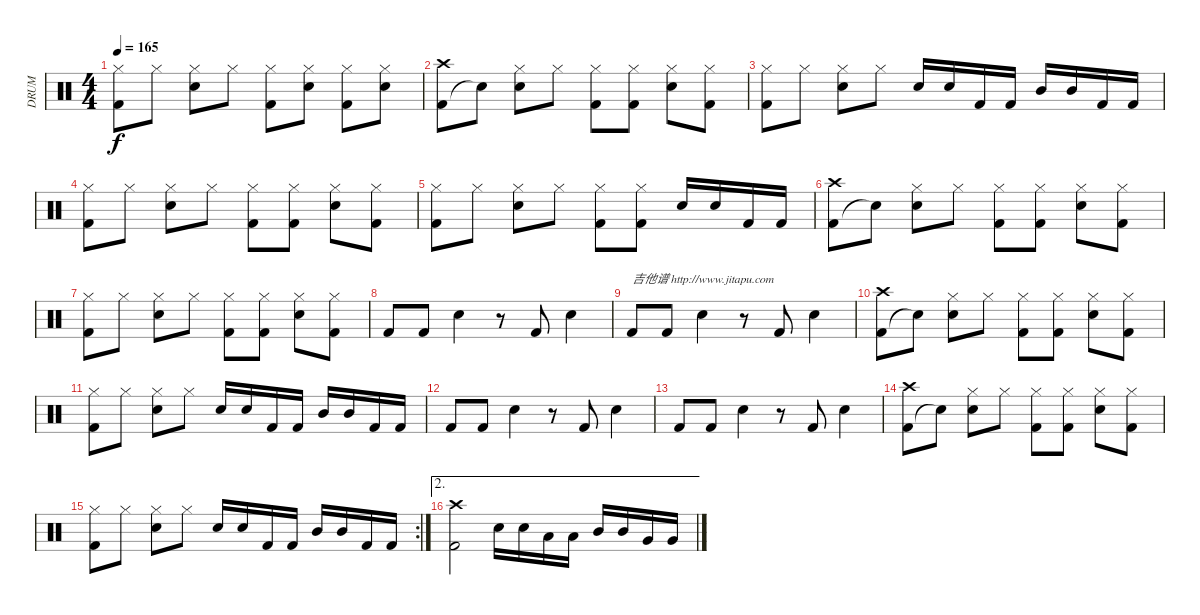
\track ("DRUM" "DRUM") {instrument percussion}
\staff {score}
\articulation defaults
\ts (4 4)
\tempo 165
\clef neutral
\ks c
("Kick (hit) 2" "Hi-Hat (closed)").8{dy f} "Hi-Hat (closed)".8 ("Electric Snare (hit)" "Hi-Hat (closed)").8 "Hi-Hat (closed)".8 ("Kick (hit) 2" "Hi-Hat (closed)").8 ("Electric Snare (hit)" "Hi-Hat (closed)").8 ("Kick (hit) 2" "Hi-Hat (closed)").8 ("Electric Snare (hit)" "Hi-Hat (closed)").8 |
("Kick (hit) 2" "Crash high (hit)").8 "Snare (hit)"{t}.8 ("Electric Snare (hit)" "Hi-Hat (closed)").8 "Hi-Hat (closed)".8 ("Kick (hit) 2" "Hi-Hat (closed)").8 ("Kick (hit) 2" "Hi-Hat (closed)").8 ("Electric Snare (hit)" "Hi-Hat (closed)").8 ("Kick (hit) 2" "Hi-Hat (closed)").8 |
("Kick (hit) 2" "Hi-Hat (closed)").8 "Hi-Hat (closed)".8 ("Electric Snare (hit)" "Hi-Hat (closed)").8 "Hi-Hat (closed)".8 "Electric Snare (hit)".16 "Electric Snare (hit)".16 "Kick (hit) 2".16 "Kick (hit) 2".16 "Mid Tom (hit)".16 "Mid Tom (hit)".16 "Kick (hit) 2".16 "Kick (hit) 2".16 |
("Kick (hit) 2" "Hi-Hat (closed)").8 "Hi-Hat (closed)".8 ("Electric Snare (hit)" "Hi-Hat (closed)").8 "Hi-Hat (closed)".8 ("Kick (hit) 2" "Hi-Hat (closed)").8 ("Kick (hit) 2" "Hi-Hat (closed)").8 ("Electric Snare (hit)" "Hi-Hat (closed)").8 ("Kick (hit) 2" "Hi-Hat (closed)").8 |
("Kick (hit) 2" "Hi-Hat (closed)").8 "Hi-Hat (closed)".8 ("Electric Snare (hit)" "Hi-Hat (closed)").8 "Hi-Hat (closed)".8 ("Kick (hit) 2" "Hi-Hat (closed)").8 ("Kick (hit) 2" "Hi-Hat (closed)").8 "Electric Snare (hit)".16 "Electric Snare (hit)".16 "Kick (hit) 2".16 "Kick (hit) 2".16 |
("Kick (hit) 2" "Crash high (hit)").8 "Snare (hit)"{t}.8 ("Electric Snare (hit)" "Hi-Hat (closed)").8 "Hi-Hat (closed)".8 ("Kick (hit) 2" "Hi-Hat (closed)").8 ("Kick (hit) 2" "Hi-Hat (closed)").8 ("Electric Snare (hit)" "Hi-Hat (closed)").8 ("Kick (hit) 2" "Hi-Hat (closed)").8 |
("Kick (hit) 2" "Hi-Hat (closed)").8 "Hi-Hat (closed)".8 ("Electric Snare (hit)" "Hi-Hat (closed)").8 "Hi-Hat (closed)".8 ("Kick (hit) 2" "Hi-Hat (closed)").8 ("Kick (hit) 2" "Hi-Hat (closed)").8 ("Electric Snare (hit)" "Hi-Hat (closed)").8 ("Kick (hit) 2" "Hi-Hat (closed)").8 |
"Kick (hit) 2".8 "Kick (hit) 2".8 "Electric Snare (hit)".4 r.8 "Kick (hit) 2".8 "Electric Snare (hit)".4 |
"Kick (hit) 2".8{txt "吉他谱 http://www.jitapu.com"} "Kick (hit) 2".8 "Electric Snare (hit)".4 r.8 "Kick (hit) 2".8 "Electric Snare (hit)".4 |
("Kick (hit) 2" "Crash high (hit)").8 "Snare (hit)"{t}.8 ("Electric Snare (hit)" "Hi-Hat (closed)").8 "Hi-Hat (closed)".8 ("Kick (hit) 2" "Hi-Hat (closed)").8 ("Kick (hit) 2" "Hi-Hat (closed)").8 ("Electric Snare (hit)" "Hi-Hat (closed)").8 ("Kick (hit) 2" "Hi-Hat (closed)").8 |
("Kick (hit) 2" "Hi-Hat (closed)").8 "Hi-Hat (closed)".8 ("Electric Snare (hit)" "Hi-Hat (closed)").8 "Hi-Hat (closed)".8 "Electric Snare (hit)".16 "Electric Snare (hit)".16 "Kick (hit) 2".16 "Kick (hit) 2".16 "Mid Tom (hit)".16 "Mid Tom (hit)".16 "Kick (hit) 2".16 "Kick (hit) 2".16 |
"Kick (hit) 2".8 "Kick (hit) 2".8 "Electric Snare (hit)".4 r.8 "Kick (hit) 2".8 "Electric Snare (hit)".4 |
"Kick (hit) 2".8 "Kick (hit) 2".8 "Electric Snare (hit)".4 r.8 "Kick (hit) 2".8 "Electric Snare (hit)".4 |
("Kick (hit) 2" "Crash high (hit)").8 "Snare (hit)"{t}.8 ("Electric Snare (hit)" "Hi-Hat (closed)").8 "Hi-Hat (closed)".8 ("Kick (hit) 2" "Hi-Hat (closed)").8 ("Kick (hit) 2" "Hi-Hat (closed)").8 ("Electric Snare (hit)" "Hi-Hat (closed)").8 ("Kick (hit) 2" "Hi-Hat (closed)").8 |
\rc 2
("Kick (hit) 2" "Hi-Hat (closed)").8 "Hi-Hat (closed)".8 ("Electric Snare (hit)" "Hi-Hat (closed)").8 "Hi-Hat (closed)".8 "Electric Snare (hit)".16 "Electric Snare (hit)".16 "Kick (hit) 2".16 "Kick (hit) 2".16 "Mid Tom (hit)".16 "Mid Tom (hit)".16 "Kick (hit) 2".16 "Kick (hit) 2".16 |
\ae 2
("Kick (hit) 2" "Crash high (hit)").2 "Electric Snare (hit)".16 "Electric Snare (hit)".16 "Low Tom (hit)".16 "Low Tom (hit)".16 "Mid Tom (hit)".16 "Mid Tom (hit)".16 "Very Low Tom (hit)".16 "Very Low Tom (hit)".16
